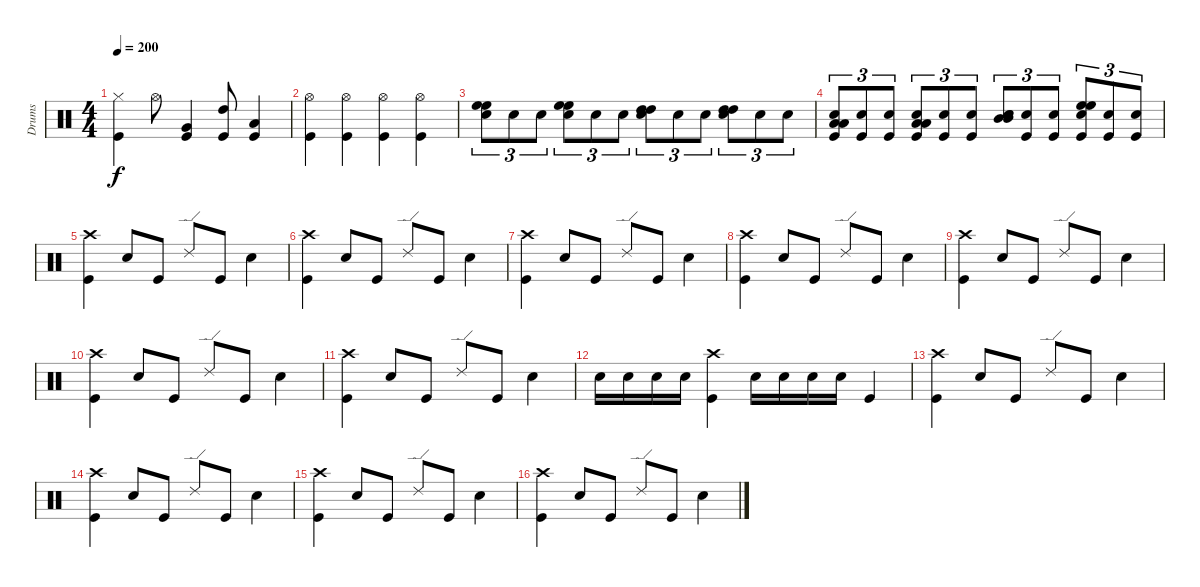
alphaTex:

\track ("Drums" "Drums") {instrument percussion}
\staff {score}
\articulation defaults
\ts (4 4)
\tempo 200
\clef neutral
\ks c
("Hi-Hat (closed)" "Kick (hit)").4{dy f} "Hi-Hat (open)".8 ("Very Low Tom (hit)" "Kick (hit)").4 ("High Tom (hit)" "Kick (hit)").8 ("Low Tom (hit)" "Kick (hit)").4 |
("Hi-Hat (open)" "Kick (hit)").4 ("Hi-Hat (open)" "Kick (hit)").4 ("Hi-Hat (open)" "Kick (hit)").4 ("Hi-Hat (open)" "Kick (hit)").4 |
("Snare (hit) 2" "High Floor Tom (hit)" "High Floor Tom (hit)").8{tu (3 2)} "Snare (hit) 2".8{tu (3 2)} "Snare (hit) 2".8{tu (3 2)} ("Snare (hit) 2" "High Floor Tom (hit)" "High Floor Tom (hit)").8{tu (3 2)} "Snare (hit) 2".8{tu (3 2)} "Snare (hit) 2".8{tu (3 2)} ("Snare (hit) 2" "High Tom (hit)" "High Tom (hit)").8{tu (3 2)} "Snare (hit) 2".8{tu (3 2)} "Snare (hit) 2".8{tu (3 2)} ("Snare (hit) 2" "High Tom (hit)" "High Tom (hit)").8{tu (3 2)} "Snare (hit) 2".8{tu (3 2)} "Snare (hit) 2".8{tu (3 2)} |
("Snare (hit) 2" "Low Tom (hit)" "Low Tom (hit)" "Kick (hit)").8{tu (3 2)} ("Snare (hit) 2" "Kick (hit)").8{tu (3 2)} ("Snare (hit) 2" "Kick (hit)").8{tu (3 2)} ("Snare (hit) 2" "Low Tom (hit)" "Low Tom (hit)" "Kick (hit)").8{tu (3 2)} ("Snare (hit) 2" "Kick (hit)").8{tu (3 2)} ("Snare (hit) 2" "Kick (hit)").8{tu (3 2)} ("Snare (hit) 2" "Mid Tom (hit)" "Mid Tom (hit)" "Snare (hit)").8{tu (3 2)} ("Snare (hit) 2" "Kick (hit)").8{tu (3 2)} ("Snare (hit) 2" "Kick (hit)").8{tu (3 2)} ("Snare (hit) 2" "High Floor Tom (hit)" "High Floor Tom (hit)" "Kick (hit)").8{tu (3 2)} ("Snare (hit) 2" "Kick (hit)").8{tu (3 2)} ("Snare (hit) 2" "Kick (hit)").8{tu (3 2)} |
("Crash high (hit)" "Kick (hit)").4 "Snare (hit) 2".8 "Kick (hit)".8 "Ride (edge) 2".8 "Kick (hit)".8 "Snare (hit) 2".4 |
("Crash high (hit)" "Kick (hit)").4 "Snare (hit) 2".8 "Kick (hit)".8 "Ride (edge) 2".8 "Kick (hit)".8 "Snare (hit) 2".4 |
("Crash high (hit)" "Kick (hit)").4 "Snare (hit) 2".8 "Kick (hit)".8 "Ride (edge) 2".8 "Kick (hit)".8 "Snare (hit) 2".4 |
("Crash high (hit)" "Kick (hit)").4 "Snare (hit) 2".8 "Kick (hit)".8 "Ride (edge) 2".8 "Kick (hit)".8 "Snare (hit) 2".4 |
("Crash high (hit)" "Kick (hit)").4 "Snare (hit) 2".8 "Kick (hit)".8 "Ride (edge) 2".8 "Kick (hit)".8 "Snare (hit) 2".4 |
("Crash high (hit)" "Kick (hit)").4 "Snare (hit) 2".8 "Kick (hit)".8 "Ride (edge) 2".8 "Kick (hit)".8 "Snare (hit) 2".4 |
("Crash high (hit)" "Kick (hit)").4 "Snare (hit) 2".8 "Kick (hit)".8 "Ride (edge) 2".8 "Kick (hit)".8 "Snare (hit) 2".4 |
"Snare (hit) 2".16 "Snare (hit) 2".16 "Snare (hit) 2".16 "Snare (hit) 2".16 ("Crash high (hit)" "Kick (hit)").4 "Snare (hit) 2".16 "Snare (hit) 2".16 "Snare (hit) 2".16 "Snare (hit) 2".16 "Kick (hit)".4 |
("Crash high (hit)" "Kick (hit)").4 "Snare (hit) 2".8 "Kick (hit)".8 "Ride (edge) 2".8 "Kick (hit)".8 "Snare (hit) 2".4 |
("Crash high (hit)" "Kick (hit)").4 "Snare (hit) 2".8 "Kick (hit)".8 "Ride (edge) 2".8 "Kick (hit)".8 "Snare (hit) 2".4 |
("Crash high (hit)" "Kick (hit)").4 "Snare (hit) 2".8 "Kick (hit)".8 "Ride (edge) 2".8 "Kick (hit)".8 "Snare (hit) 2".4 |
("Crash high (hit)" "Kick (hit)").4 "Snare (hit) 2".8 "Kick (hit)".8 "Ride (edge) 2".8 "Kick (hit)".8 "Snare (hit) 2".4
